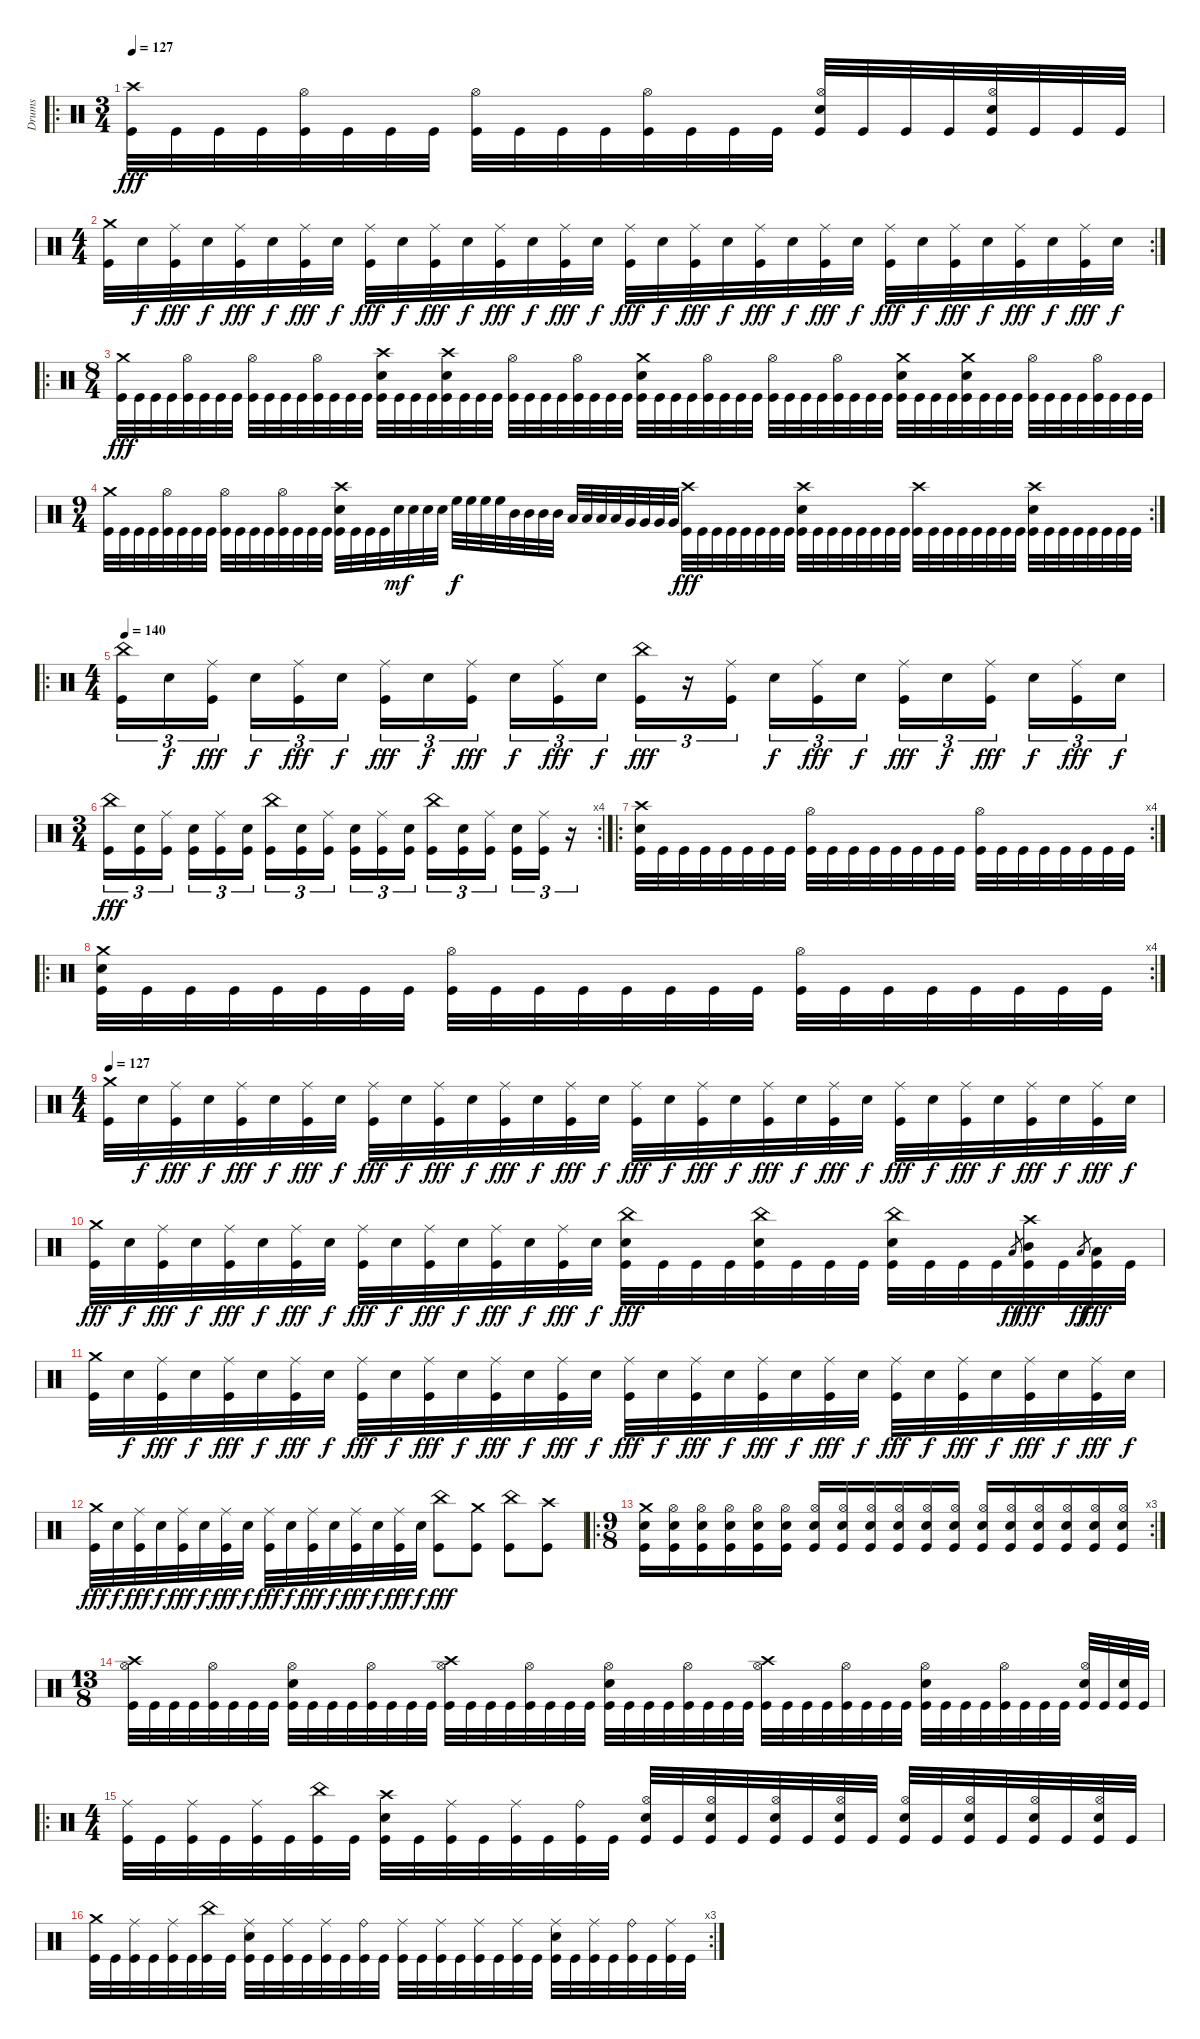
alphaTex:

\track ("Drums" "Drums") {instrument percussion}
\staff {score}
\articulation defaults
\ro
\ts (3 4)
\tempo 127
\clef neutral
\ks c
("Crash high (hit)" "Kick (hit)").32{dy fff} "Kick (hit)".32 "Kick (hit)".32 "Kick (hit)".32 ("Hi-Hat (open)" "Kick (hit)").32 "Kick (hit)".32 "Kick (hit)".32 "Kick (hit)".32 ("Hi-Hat (open)" "Kick (hit)").32 "Kick (hit)".32 "Kick (hit)".32 "Kick (hit)".32 ("Hi-Hat (open)" "Kick (hit)").32 "Kick (hit)".32 "Kick (hit)".32 "Kick (hit)".32 ("Hi-Hat (open)" "Electric Snare (hit)" "Kick (hit)").32 "Kick (hit)".32 "Kick (hit)".32 "Kick (hit)".32 ("Hi-Hat (open)" "Electric Snare (hit)" "Kick (hit)").32 "Kick (hit)".32 "Kick (hit)".32 "Kick (hit)".32 |
\rc 2
\ts (4 4)
("Crash medium (hit)" "Kick (hit)").32 "Electric Snare (hit)".32{dy f} ("Ride (middle)" "Kick (hit)").32{dy fff} "Electric Snare (hit)".32{dy f} ("Ride (middle)" "Kick (hit)").32{dy fff} "Electric Snare (hit)".32{dy f} ("Ride (middle)" "Kick (hit)").32{dy fff} "Electric Snare (hit)".32{dy f} ("Ride (middle)" "Kick (hit)").32{dy fff} "Electric Snare (hit)".32{dy f} ("Ride (middle)" "Kick (hit)").32{dy fff} "Electric Snare (hit)".32{dy f} ("Ride (middle)" "Kick (hit)").32{dy fff} "Electric Snare (hit)".32{dy f} ("Ride (middle)" "Kick (hit)").32{dy fff} "Electric Snare (hit)".32{dy f} ("Ride (middle)" "Kick (hit)").32{dy fff} "Electric Snare (hit)".32{dy f} ("Ride (middle)" "Kick (hit)").32{dy fff} "Electric Snare (hit)".32{dy f} ("Ride (middle)" "Kick (hit)").32{dy fff} "Electric Snare (hit)".32{dy f} ("Ride (middle)" "Kick (hit)").32{dy fff} "Electric Snare (hit)".32{dy f} ("Ride (middle)" "Kick (hit)").32{dy fff} "Electric Snare (hit)".32{dy f} ("Ride (middle)" "Kick (hit)").32{dy fff} "Electric Snare (hit)".32{dy f} ("Ride (middle)" "Kick (hit)").32{dy fff} "Electric Snare (hit)".32{dy f} ("Ride (middle)" "Kick (hit)").32{dy fff} "Electric Snare (hit)".32{dy f} |
\ro
\ts (8 4)
("Crash medium (hit)" "Kick (hit)").32{dy fff} "Kick (hit)".32 "Kick (hit)".32 "Kick (hit)".32 ("Hi-Hat (open)" "Kick (hit)").32 "Kick (hit)".32 "Kick (hit)".32 "Kick (hit)".32 ("Hi-Hat (open)" "Kick (hit)").32 "Kick (hit)".32 "Kick (hit)".32 "Kick (hit)".32 ("Hi-Hat (open)" "Kick (hit)").32 "Kick (hit)".32 "Kick (hit)".32 "Kick (hit)".32 ("Crash high (hit)" "Electric Snare (hit)" "Kick (hit)").32 "Kick (hit)".32 "Kick (hit)".32 "Kick (hit)".32 ("Crash high (hit)" "Electric Snare (hit)" "Kick (hit)").32 "Kick (hit)".32 "Kick (hit)".32 "Kick (hit)".32 ("Hi-Hat (open)" "Kick (hit)").32 "Kick (hit)".32 "Kick (hit)".32 "Kick (hit)".32 ("Hi-Hat (open)" "Kick (hit)").32 "Kick (hit)".32 "Kick (hit)".32 "Kick (hit)".32 ("Crash medium (hit)" "Electric Snare (hit)" "Kick (hit)").32 "Kick (hit)".32 "Kick (hit)".32 "Kick (hit)".32 ("Hi-Hat (open)" "Kick (hit)").32 "Kick (hit)".32 "Kick (hit)".32 "Kick (hit)".32 ("Hi-Hat (open)" "Kick (hit)").32 "Kick (hit)".32 "Kick (hit)".32 "Kick (hit)".32 ("Hi-Hat (open)" "Kick (hit)").32 "Kick (hit)".32 "Kick (hit)".32 "Kick (hit)".32 ("Crash medium (hit)" "Electric Snare (hit)" "Kick (hit)").32 "Kick (hit)".32 "Kick (hit)".32 "Kick (hit)".32 ("Crash medium (hit)" "Electric Snare (hit)" "Kick (hit)").32 "Kick (hit)".32 "Kick (hit)".32 "Kick (hit)".32 ("Hi-Hat (open)" "Kick (hit)").32 "Kick (hit)".32 "Kick (hit)".32 "Kick (hit)".32 ("Hi-Hat (open)" "Kick (hit)").32 "Kick (hit)".32 "Kick (hit)".32 "Kick (hit)".32 |
\rc 2
\ts (9 4)
("Crash medium (hit)" "Kick (hit)").32 "Kick (hit)".32 "Kick (hit)".32 "Kick (hit)".32 ("Hi-Hat (open)" "Kick (hit)").32 "Kick (hit)".32 "Kick (hit)".32 "Kick (hit)".32 ("Hi-Hat (open)" "Kick (hit)").32 "Kick (hit)".32 "Kick (hit)".32 "Kick (hit)".32 ("Hi-Hat (open)" "Kick (hit)").32 "Kick (hit)".32 "Kick (hit)".32 "Kick (hit)".32 ("Crash high (hit)" "Electric Snare (hit)" "Kick (hit)").32 "Kick (hit)".32 "Kick (hit)".32 "Kick (hit)".32 "Electric Snare (hit)".32{dy mf} "Electric Snare (hit)".32 "Electric Snare (hit)".32 "Electric Snare (hit)".32 "High Floor Tom (hit)".32{dy f} "High Floor Tom (hit)".32 "High Floor Tom (hit)".32 "High Floor Tom (hit)".32 "Mid Tom (hit)".32 "Mid Tom (hit)".32 "Mid Tom (hit)".32 "Mid Tom (hit)".32 "Low Tom (hit)".32 "Low Tom (hit)".32 "Low Tom (hit)".32 "Low Tom (hit)".32 "Very Low Tom (hit)".32 "Very Low Tom (hit)".32 "Very Low Tom (hit)".32 "Very Low Tom (hit)".32 ("Crash high (hit)" "Kick (hit)").32{dy fff} "Kick (hit)".32 "Kick (hit)".32 "Kick (hit)".32 "Kick (hit)".32 "Kick (hit)".32 "Kick (hit)".32 "Kick (hit)".32 ("Crash high (hit)" "Electric Snare (hit)" "Kick (hit)").32 "Kick (hit)".32 "Kick (hit)".32 "Kick (hit)".32 "Kick (hit)".32 "Kick (hit)".32 "Kick (hit)".32 "Kick (hit)".32 ("Crash high (hit)" "Kick (hit)").32 "Kick (hit)".32 "Kick (hit)".32 "Kick (hit)".32 "Kick (hit)".32 "Kick (hit)".32 "Kick (hit)".32 "Kick (hit)".32 ("Crash high (hit)" "Electric Snare (hit)" "Kick (hit)").32 "Kick (hit)".32 "Kick (hit)".32 "Kick (hit)".32 "Kick (hit)".32 "Kick (hit)".32 "Kick (hit)".32 "Kick (hit)".32 |
\ro
\ts (4 4)
\tempo 140
("China (hit)" "Kick (hit)").16{tu (3 2)} "Electric Snare (hit)".16{tu (3 2) dy f} ("Ride (middle)" "Kick (hit)").16{tu (3 2) dy fff} "Electric Snare (hit)".16{tu (3 2) dy f} ("Ride (middle)" "Kick (hit)").16{tu (3 2) dy fff} "Electric Snare (hit)".16{tu (3 2) dy f} ("Ride (middle)" "Kick (hit)").16{tu (3 2) dy fff} "Electric Snare (hit)".16{tu (3 2) dy f} ("Ride (middle)" "Kick (hit)").16{tu (3 2) dy fff} "Electric Snare (hit)".16{tu (3 2) dy f} ("Ride (middle)" "Kick (hit)").16{tu (3 2) dy fff} "Electric Snare (hit)".16{tu (3 2) dy f} ("China (hit)" "Kick (hit)").16{tu (3 2) dy fff} r.16{tu (3 2)} ("Ride (middle)" "Kick (hit)").16{tu (3 2)} "Electric Snare (hit)".16{tu (3 2) dy f} ("Ride (middle)" "Kick (hit)").16{tu (3 2) dy fff} "Electric Snare (hit)".16{tu (3 2) dy f} ("Ride (middle)" "Kick (hit)").16{tu (3 2) dy fff} "Electric Snare (hit)".16{tu (3 2) dy f} ("Ride (middle)" "Kick (hit)").16{tu (3 2) dy fff} "Electric Snare (hit)".16{tu (3 2) dy f} ("Ride (middle)" "Kick (hit)").16{tu (3 2) dy fff} "Electric Snare (hit)".16{tu (3 2) dy f} |
\rc 4
\ts (3 4)
("China (hit)" "Kick (hit)").16{tu (3 2) dy fff} ("Electric Snare (hit)" "Kick (hit)").16{tu (3 2)} ("Ride (middle)" "Kick (hit)").16{tu (3 2)} ("Electric Snare (hit)" "Kick (hit)").16{tu (3 2)} ("Ride (middle)" "Kick (hit)").16{tu (3 2)} ("Electric Snare (hit)" "Kick (hit)").16{tu (3 2)} ("China (hit)" "Kick (hit)").16{tu (3 2)} ("Electric Snare (hit)" "Kick (hit)").16{tu (3 2)} ("Ride (middle)" "Kick (hit)").16{tu (3 2)} ("Electric Snare (hit)" "Kick (hit)").16{tu (3 2)} ("Ride (middle)" "Kick (hit)").16{tu (3 2)} ("Electric Snare (hit)" "Kick (hit)").16{tu (3 2)} ("China (hit)" "Kick (hit)").16{tu (3 2)} ("Electric Snare (hit)" "Kick (hit)").16{tu (3 2)} ("Ride (middle)" "Kick (hit)").16{tu (3 2)} ("Electric Snare (hit)" "Kick (hit)").16{tu (3 2)} ("Ride (middle)" "Kick (hit)").16{tu (3 2)} r.16{tu (3 2)} |
\ro
\rc 4
("Crash high (hit)" "Electric Snare (hit)" "Kick (hit)").32 "Kick (hit)".32 "Kick (hit)".32 "Kick (hit)".32 "Kick (hit)".32 "Kick (hit)".32 "Kick (hit)".32 "Kick (hit)".32 ("Hi-Hat (open)" "Kick (hit)").32 "Kick (hit)".32 "Kick (hit)".32 "Kick (hit)".32 "Kick (hit)".32 "Kick (hit)".32 "Kick (hit)".32 "Kick (hit)".32 ("Hi-Hat (open)" "Kick (hit)").32 "Kick (hit)".32 "Kick (hit)".32 "Kick (hit)".32 "Kick (hit)".32 "Kick (hit)".32 "Kick (hit)".32 "Kick (hit)".32 |
\ro
\rc 4
("Crash medium (hit)" "Electric Snare (hit)" "Kick (hit)").32 "Kick (hit)".32 "Kick (hit)".32 "Kick (hit)".32 "Kick (hit)".32 "Kick (hit)".32 "Kick (hit)".32 "Kick (hit)".32 ("Hi-Hat (open)" "Kick (hit)").32 "Kick (hit)".32 "Kick (hit)".32 "Kick (hit)".32 "Kick (hit)".32 "Kick (hit)".32 "Kick (hit)".32 "Kick (hit)".32 ("Hi-Hat (open)" "Kick (hit)").32 "Kick (hit)".32 "Kick (hit)".32 "Kick (hit)".32 "Kick (hit)".32 "Kick (hit)".32 "Kick (hit)".32 "Kick (hit)".32 |
\ts (4 4)
\tempo 127
("Crash medium (hit)" "Kick (hit)").32 "Electric Snare (hit)".32{dy f} ("Ride (middle)" "Kick (hit)").32{dy fff} "Electric Snare (hit)".32{dy f} ("Ride (middle)" "Kick (hit)").32{dy fff} "Electric Snare (hit)".32{dy f} ("Ride (middle)" "Kick (hit)").32{dy fff} "Electric Snare (hit)".32{dy f} ("Ride (middle)" "Kick (hit)").32{dy fff} "Electric Snare (hit)".32{dy f} ("Ride (middle)" "Kick (hit)").32{dy fff} "Electric Snare (hit)".32{dy f} ("Ride (middle)" "Kick (hit)").32{dy fff} "Electric Snare (hit)".32{dy f} ("Ride (middle)" "Kick (hit)").32{dy fff} "Electric Snare (hit)".32{dy f} ("Ride (middle)" "Kick (hit)").32{dy fff} "Electric Snare (hit)".32{dy f} ("Ride (middle)" "Kick (hit)").32{dy fff} "Electric Snare (hit)".32{dy f} ("Ride (middle)" "Kick (hit)").32{dy fff} "Electric Snare (hit)".32{dy f} ("Ride (middle)" "Kick (hit)").32{dy fff} "Electric Snare (hit)".32{dy f} ("Ride (middle)" "Kick (hit)").32{dy fff} "Electric Snare (hit)".32{dy f} ("Ride (middle)" "Kick (hit)").32{dy fff} "Electric Snare (hit)".32{dy f} ("Ride (middle)" "Kick (hit)").32{dy fff} "Electric Snare (hit)".32{dy f} ("Ride (middle)" "Kick (hit)").32{dy fff} "Electric Snare (hit)".32{dy f} |
("Crash medium (hit)" "Kick (hit)").32{dy fff} "Electric Snare (hit)".32{dy f} ("Ride (middle)" "Kick (hit)").32{dy fff} "Electric Snare (hit)".32{dy f} ("Ride (middle)" "Kick (hit)").32{dy fff} "Electric Snare (hit)".32{dy f} ("Ride (middle)" "Kick (hit)").32{dy fff} "Electric Snare (hit)".32{dy f} ("Ride (middle)" "Kick (hit)").32{dy fff} "Electric Snare (hit)".32{dy f} ("Ride (middle)" "Kick (hit)").32{dy fff} "Electric Snare (hit)".32{dy f} ("Ride (middle)" "Kick (hit)").32{dy fff} "Electric Snare (hit)".32{dy f} ("Ride (middle)" "Kick (hit)").32{dy fff} "Electric Snare (hit)".32{dy f} ("China (hit)" "Electric Snare (hit)" "Kick (hit)").32{dy fff} "Kick (hit)".32 "Kick (hit)".32 "Kick (hit)".32 ("China (hit)" "Electric Snare (hit)" "Kick (hit)").32 "Kick (hit)".32 "Kick (hit)".32 "Kick (hit)".32 ("China (hit)" "Electric Snare (hit)" "Kick (hit)").32 "Kick (hit)".32 "Kick (hit)".32 "Kick (hit)".32 "Low Tom (hit)".8{gr dy ff} ("Crash high (hit)" "Mid Tom (hit)" "Kick (hit)").32{dy fff} "Kick (hit)".32 "Low Tom (hit)".8{gr dy ff} ("Low Tom (hit)" "Kick (hit)").32{dy fff} "Kick (hit)".32 |
("Crash medium (hit)" "Kick (hit)").32 "Electric Snare (hit)".32{dy f} ("Ride (middle)" "Kick (hit)").32{dy fff} "Electric Snare (hit)".32{dy f} ("Ride (middle)" "Kick (hit)").32{dy fff} "Electric Snare (hit)".32{dy f} ("Ride (middle)" "Kick (hit)").32{dy fff} "Electric Snare (hit)".32{dy f} ("Ride (middle)" "Kick (hit)").32{dy fff} "Electric Snare (hit)".32{dy f} ("Ride (middle)" "Kick (hit)").32{dy fff} "Electric Snare (hit)".32{dy f} ("Ride (middle)" "Kick (hit)").32{dy fff} "Electric Snare (hit)".32{dy f} ("Ride (middle)" "Kick (hit)").32{dy fff} "Electric Snare (hit)".32{dy f} ("Ride (middle)" "Kick (hit)").32{dy fff} "Electric Snare (hit)".32{dy f} ("Ride (middle)" "Kick (hit)").32{dy fff} "Electric Snare (hit)".32{dy f} ("Ride (middle)" "Kick (hit)").32{dy fff} "Electric Snare (hit)".32{dy f} ("Ride (middle)" "Kick (hit)").32{dy fff} "Electric Snare (hit)".32{dy f} ("Ride (middle)" "Kick (hit)").32{dy fff} "Electric Snare (hit)".32{dy f} ("Ride (middle)" "Kick (hit)").32{dy fff} "Electric Snare (hit)".32{dy f} ("Ride (middle)" "Kick (hit)").32{dy fff} "Electric Snare (hit)".32{dy f} ("Ride (middle)" "Kick (hit)").32{dy fff} "Electric Snare (hit)".32{dy f} |
("Crash medium (hit)" "Kick (hit)").32{dy fff} "Electric Snare (hit)".32{dy f} ("Ride (middle)" "Kick (hit)").32{dy fff} "Electric Snare (hit)".32{dy f} ("Ride (middle)" "Kick (hit)").32{dy fff} "Electric Snare (hit)".32{dy f} ("Ride (middle)" "Kick (hit)").32{dy fff} "Electric Snare (hit)".32{dy f} ("Ride (middle)" "Kick (hit)").32{dy fff} "Electric Snare (hit)".32{dy f} ("Ride (middle)" "Kick (hit)").32{dy fff} "Electric Snare (hit)".32{dy f} ("Ride (middle)" "Kick (hit)").32{dy fff} "Electric Snare (hit)".32{dy f} ("Ride (middle)" "Kick (hit)").32{dy fff} "Electric Snare (hit)".32{dy f} ("China (hit)" "Kick (hit)").8{dy fff} ("Crash medium (hit)" "Kick (hit)").8 ("China (hit)" "Kick (hit)").8 ("Crash high (hit)" "Kick (hit)").8 |
\ro
\rc 3
\ts (9 8)
("Crash medium (hit)" "Electric Snare (hit)" "Kick (hit)").16 ("Hi-Hat (open)" "Electric Snare (hit)" "Kick (hit)").16 ("Hi-Hat (open)" "Electric Snare (hit)" "Kick (hit)").16 ("Hi-Hat (open)" "Electric Snare (hit)" "Kick (hit)").16 ("Hi-Hat (open)" "Electric Snare (hit)" "Kick (hit)").16 ("Hi-Hat (open)" "Electric Snare (hit)" "Kick (hit)").16 ("Hi-Hat (open)" "Electric Snare (hit)" "Kick (hit)").16 ("Hi-Hat (open)" "Electric Snare (hit)" "Kick (hit)").16 ("Hi-Hat (open)" "Electric Snare (hit)" "Kick (hit)").16 ("Hi-Hat (open)" "Electric Snare (hit)" "Kick (hit)").16 ("Hi-Hat (open)" "Electric Snare (hit)" "Kick (hit)").16 ("Hi-Hat (open)" "Electric Snare (hit)" "Kick (hit)").16 ("Hi-Hat (open)" "Electric Snare (hit)" "Kick (hit)").16 ("Hi-Hat (open)" "Electric Snare (hit)" "Kick (hit)").16 ("Hi-Hat (open)" "Electric Snare (hit)" "Kick (hit)").16 ("Hi-Hat (open)" "Electric Snare (hit)" "Kick (hit)").16 ("Hi-Hat (open)" "Electric Snare (hit)" "Kick (hit)").16 ("Hi-Hat (open)" "Electric Snare (hit)" "Kick (hit)").16 |
\ts (13 8)
("Crash high (hit)" "Hi-Hat (open)" "Kick (hit)").32 "Kick (hit)".32 "Kick (hit)".32 "Kick (hit)".32 ("Hi-Hat (open)" "Kick (hit)").32 "Kick (hit)".32 "Kick (hit)".32 "Kick (hit)".32 ("Electric Snare (hit)" "Hi-Hat (open)" "Kick (hit)").32 "Kick (hit)".32 "Kick (hit)".32 "Kick (hit)".32 ("Hi-Hat (open)" "Kick (hit)").32 "Kick (hit)".32 "Kick (hit)".32 "Kick (hit)".32 ("Crash high (hit)" "Hi-Hat (open)" "Kick (hit)").32 "Kick (hit)".32 "Kick (hit)".32 "Kick (hit)".32 ("Hi-Hat (open)" "Kick (hit)").32 "Kick (hit)".32 "Kick (hit)".32 "Kick (hit)".32 ("Electric Snare (hit)" "Hi-Hat (open)" "Kick (hit)").32 "Kick (hit)".32 "Kick (hit)".32 "Kick (hit)".32 ("Hi-Hat (open)" "Kick (hit)").32 "Kick (hit)".32 "Kick (hit)".32 "Kick (hit)".32 ("Crash high (hit)" "Hi-Hat (open)" "Kick (hit)").32 "Kick (hit)".32 "Kick (hit)".32 "Kick (hit)".32 ("Hi-Hat (open)" "Kick (hit)").32 "Kick (hit)".32 "Kick (hit)".32 "Kick (hit)".32 ("Electric Snare (hit)" "Hi-Hat (open)" "Kick (hit)").32 "Kick (hit)".32 "Kick (hit)".32 "Kick (hit)".32 ("Hi-Hat (open)" "Kick (hit)").32 "Kick (hit)".32 "Kick (hit)".32 "Kick (hit)".32 ("Electric Snare (hit)" "Hi-Hat (open)" "Kick (hit)").32 "Kick (hit)".32 ("Electric Snare (hit)" "Kick (hit)").32 "Kick (hit)".32 |
\ro
\ts (4 4)
("Ride (middle)" "Kick (hit)").32 "Kick (hit)".32 ("Ride (middle)" "Kick (hit)").32 "Kick (hit)".32 ("Ride (middle)" "Kick (hit)").32 "Kick (hit)".32 ("China (hit)" "Kick (hit)").32 "Kick (hit)".32 ("Crash high (hit)" "Electric Snare (hit)" "Kick (hit)").32 "Kick (hit)".32 ("Ride (middle)" "Kick (hit)").32 "Kick (hit)".32 ("Ride (middle)" "Kick (hit)").32 "Kick (hit)".32 ("Ride (bell)" "Kick (hit)").32 "Kick (hit)".32 ("Hi-Hat (open)" "Electric Snare (hit)" "Kick (hit)").32 "Kick (hit)".32 ("Hi-Hat (open)" "Electric Snare (hit)" "Kick (hit)").32 "Kick (hit)".32 ("Hi-Hat (open)" "Electric Snare (hit)" "Kick (hit)").32 "Kick (hit)".32 ("Hi-Hat (open)" "Electric Snare (hit)" "Kick (hit)").32 "Kick (hit)".32 ("Hi-Hat (open)" "Electric Snare (hit)" "Kick (hit)").32 "Kick (hit)".32 ("Hi-Hat (open)" "Electric Snare (hit)" "Kick (hit)").32 "Kick (hit)".32 ("Hi-Hat (open)" "Electric Snare (hit)" "Kick (hit)").32 "Kick (hit)".32 ("Hi-Hat (open)" "Electric Snare (hit)" "Kick (hit)").32 "Kick (hit)".32 |
\rc 3
("Crash medium (hit)" "Kick (hit)").32 "Kick (hit)".32 ("Ride (middle)" "Kick (hit)").32 "Kick (hit)".32 ("Ride (middle)" "Kick (hit)").32 "Kick (hit)".32 ("China (hit)" "Kick (hit)").32 "Kick (hit)".32 ("Ride (middle)" "Electric Snare (hit)" "Kick (hit)").32 "Kick (hit)".32 ("Ride (middle)" "Kick (hit)").32 "Kick (hit)".32 ("Ride (middle)" "Kick (hit)").32 "Kick (hit)".32 ("Ride (bell)" "Kick (hit)").32 "Kick (hit)".32 ("Ride (middle)" "Kick (hit)").32 "Kick (hit)".32 ("Ride (middle)" "Kick (hit)").32 "Kick (hit)".32 ("Ride (middle)" "Kick (hit)").32 "Kick (hit)".32 ("Ride (middle)" "Kick (hit)").32 "Kick (hit)".32 ("Ride (middle)" "Electric Snare (hit)" "Kick (hit)").32 "Kick (hit)".32 ("Ride (middle)" "Kick (hit)").32 "Kick (hit)".32 ("Ride (bell)" "Kick (hit)").32 "Kick (hit)".32 ("Ride (middle)" "Kick (hit)").32 "Kick (hit)".32
